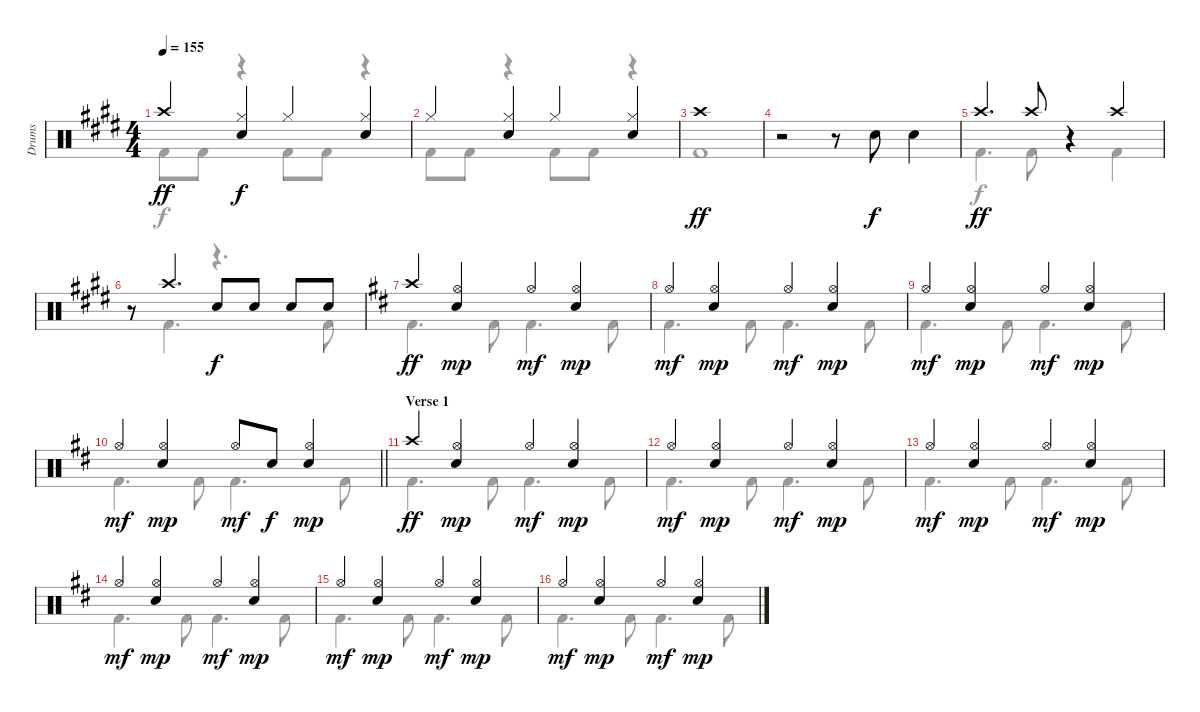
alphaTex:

\track ("Drums" "Drums") {instrument percussion}
\staff {score}
\articulation defaults
\voice
\ts (4 4)
\tempo 155
\clef neutral
\ks e "Crash high (hit)".4{dy ff}
("Hi-Hat (closed)" "Electric Snare (hit)").4{dy f} "Hi-Hat (closed)".4 ("Hi-Hat (closed)" "Electric Snare (hit)").4 |
"Hi-Hat (closed)".4 ("Hi-Hat (closed)" "Electric Snare (hit)").4 "Hi-Hat (closed)".4 ("Hi-Hat (closed)" "Electric Snare (hit)").4 |
"Crash high (hit)".1{dy ff} |
r.2 r.8 "Electric Snare (hit)".8{dy f} "Electric Snare (hit)".4 |
"Crash high (hit)".4{d dy ff} "Crash high (hit)".8 r.4 "Crash high (hit)".4 |
r.8 "Crash high (hit)".4{d} "Electric Snare (hit)".8{dy f} "Electric Snare (hit)".8 "Electric Snare (hit)".8 "Electric Snare (hit)".8 |
\ks d "Crash high (hit)".4{dy ff}
("Hi-Hat (open)" "Electric Snare (hit)").4{dy mp} "Hi-Hat (open)".4{dy mf} ("Hi-Hat (open)" "Electric Snare (hit)").4{dy mp} |
"Hi-Hat (open)".4{dy mf} ("Hi-Hat (open)" "Electric Snare (hit)").4{dy mp} "Hi-Hat (open)".4{dy mf} ("Hi-Hat (open)" "Electric Snare (hit)").4{dy mp} |
"Hi-Hat (open)".4{dy mf} ("Hi-Hat (open)" "Electric Snare (hit)").4{dy mp} "Hi-Hat (open)".4{dy mf} ("Hi-Hat (open)" "Electric Snare (hit)").4{dy mp} |
\barLineRight lightlight "Hi-Hat (open)".4{dy mf}
("Hi-Hat (open)" "Electric Snare (hit)").4{dy mp} "Hi-Hat (open)".8{dy mf} "Electric Snare (hit)".8{dy f} ("Hi-Hat (open)" "Electric Snare (hit)").4{dy mp} |
\section ("" "Verse 1")
"Crash high (hit)".4{dy ff} ("Hi-Hat (open)" "Electric Snare (hit)").4{dy mp} "Hi-Hat (open)".4{dy mf} ("Hi-Hat (open)" "Electric Snare (hit)").4{dy mp} |
"Hi-Hat (open)".4{dy mf} ("Hi-Hat (open)" "Electric Snare (hit)").4{dy mp} "Hi-Hat (open)".4{dy mf} ("Hi-Hat (open)" "Electric Snare (hit)").4{dy mp} |
"Hi-Hat (open)".4{dy mf} ("Hi-Hat (open)" "Electric Snare (hit)").4{dy mp} "Hi-Hat (open)".4{dy mf} ("Hi-Hat (open)" "Electric Snare (hit)").4{dy mp} |
"Hi-Hat (open)".4{dy mf} ("Hi-Hat (open)" "Electric Snare (hit)").4{dy mp} "Hi-Hat (open)".4{dy mf} ("Hi-Hat (open)" "Electric Snare (hit)").4{dy mp} |
"Hi-Hat (open)".4{dy mf} ("Hi-Hat (open)" "Electric Snare (hit)").4{dy mp} "Hi-Hat (open)".4{dy mf} ("Hi-Hat (open)" "Electric Snare (hit)").4{dy mp} |
"Hi-Hat (open)".4{dy mf} ("Hi-Hat (open)" "Electric Snare (hit)").4{dy mp} "Hi-Hat (open)".4{dy mf} ("Hi-Hat (open)" "Electric Snare (hit)").4{dy mp}
\voice
\clef neutral
\ottava regular
\simile none
\ks e "Kick (hit) 2".8{dy f} "Kick (hit) 2".8
r.4 "Kick (hit) 2".8 "Kick (hit) 2".8 r.4 |
"Kick (hit) 2".8 "Kick (hit) 2".8 r.4 "Kick (hit) 2".8 "Kick (hit) 2".8 r.4 |
"Kick (hit) 2".1{dy ff} |
|
"Kick (hit) 2".4{d dy f} "Kick (hit) 2".8 r.4 "Kick (hit) 2".4 |
r.8 "Kick (hit) 2".4{d} r.4{d} "Kick (hit) 2".8 |
\ks d "Kick (hit) 2".4{d} "Kick (hit) 2".8 "Kick (hit) 2".4{d} "Kick (hit) 2".8
|
"Kick (hit) 2".4{d} "Kick (hit) 2".8 "Kick (hit) 2".4{d} "Kick (hit) 2".8 |
"Kick (hit) 2".4{d} "Kick (hit) 2".8 "Kick (hit) 2".4{d} "Kick (hit) 2".8 |
\barLineRight lightlight "Kick (hit) 2".4{d} "Kick (hit) 2".8 "Kick (hit) 2".4{d} "Kick (hit) 2".8
|
"Kick (hit) 2".4{d} "Kick (hit) 2".8 "Kick (hit) 2".4{d} "Kick (hit) 2".8 |
"Kick (hit) 2".4{d} "Kick (hit) 2".8 "Kick (hit) 2".4{d} "Kick (hit) 2".8 |
"Kick (hit) 2".4{d} "Kick (hit) 2".8 "Kick (hit) 2".4{d} "Kick (hit) 2".8 |
"Kick (hit) 2".4{d} "Kick (hit) 2".8 "Kick (hit) 2".4{d} "Kick (hit) 2".8 |
"Kick (hit) 2".4{d} "Kick (hit) 2".8 "Kick (hit) 2".4{d} "Kick (hit) 2".8 |
"Kick (hit) 2".4{d} "Kick (hit) 2".8 "Kick (hit) 2".4{d} "Kick (hit) 2".8
